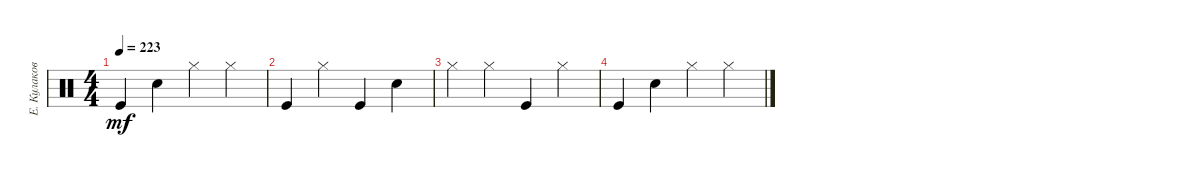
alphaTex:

\track ("Е. Кулаков" "Е. Кулаков") {instrument percussion}
\staff {score}
\articulation defaults
\ts (4 4)
\tempo 223
\clef neutral
\ks c "Kick (hit)".4{dy mf} "Snare (hit) 2".4 "Hi-Hat (closed)".4 "Hi-Hat (closed)".4
|
"Kick (hit)".4 "Hi-Hat (closed)".4 "Kick (hit)".4 "Snare (hit) 2".4 |
"Hi-Hat (closed)".4 "Hi-Hat (closed)".4 "Kick (hit)".4 "Hi-Hat (closed)".4 |
"Kick (hit)".4 "Snare (hit) 2".4 "Hi-Hat (closed)".4 "Hi-Hat (closed)".4
